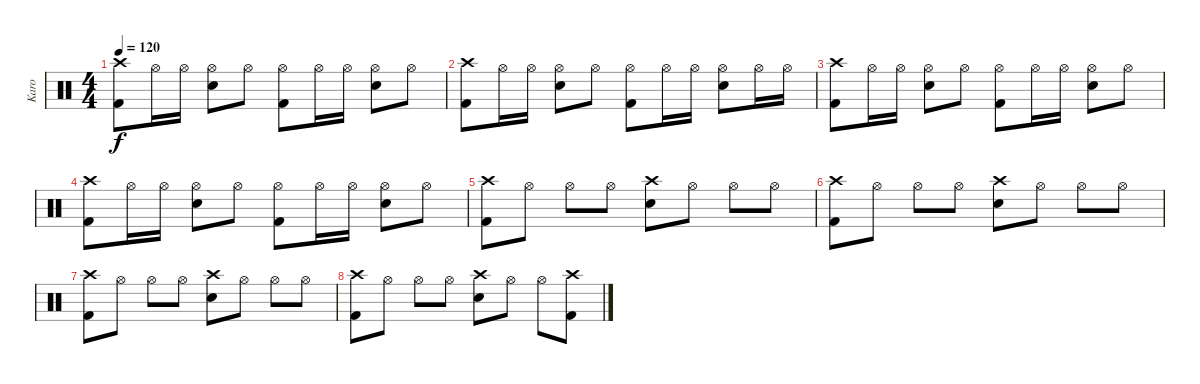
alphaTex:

\track ("Karo" "Karo") {instrument percussion}
\staff {score}
\articulation defaults
\ts (4 4)
\tempo 120
\clef neutral
\ks c
("Crash high (hit)" "Kick (hit) 2").8{dy f} "Hi-Hat (open)".16 "Hi-Hat (open)".16 ("Hi-Hat (open)" "Electric Snare (hit)").8 "Hi-Hat (open)".8 ("Hi-Hat (open)" "Kick (hit) 2").8 "Hi-Hat (open)".16 "Hi-Hat (open)".16 ("Hi-Hat (open)" "Electric Snare (hit)").8 "Hi-Hat (open)".8 |
("Crash high (hit)" "Kick (hit) 2").8 "Hi-Hat (open)".16 "Hi-Hat (open)".16 ("Hi-Hat (open)" "Electric Snare (hit)").8 "Hi-Hat (open)".8 ("Hi-Hat (open)" "Kick (hit) 2").8 "Hi-Hat (open)".16 "Hi-Hat (open)".16 ("Hi-Hat (open)" "Electric Snare (hit)").8 "Hi-Hat (open)".16 "Hi-Hat (open)".16 |
("Crash high (hit)" "Kick (hit) 2").8 "Hi-Hat (open)".16 "Hi-Hat (open)".16 ("Hi-Hat (open)" "Electric Snare (hit)").8 "Hi-Hat (open)".8 ("Hi-Hat (open)" "Kick (hit) 2").8 "Hi-Hat (open)".16 "Hi-Hat (open)".16 ("Hi-Hat (open)" "Electric Snare (hit)").8 "Hi-Hat (open)".8 |
("Crash high (hit)" "Kick (hit) 2").8 "Hi-Hat (open)".16 "Hi-Hat (open)".16 ("Hi-Hat (open)" "Electric Snare (hit)").8 "Hi-Hat (open)".8 ("Hi-Hat (open)" "Kick (hit) 2").8 "Hi-Hat (open)".16 "Hi-Hat (open)".16 ("Hi-Hat (open)" "Electric Snare (hit)").8 "Hi-Hat (open)".8 |
("Crash high (hit)" "Kick (hit) 2").8 "Hi-Hat (open)".8 "Hi-Hat (open)".8 "Hi-Hat (open)".8 ("Crash high (hit)" "Electric Snare (hit)").8 "Hi-Hat (open)".8 "Hi-Hat (open)".8 "Hi-Hat (open)".8 |
("Crash high (hit)" "Kick (hit) 2").8 "Hi-Hat (open)".8 "Hi-Hat (open)".8 "Hi-Hat (open)".8 ("Crash high (hit)" "Electric Snare (hit)").8 "Hi-Hat (open)".8 "Hi-Hat (open)".8 "Hi-Hat (open)".8 |
("Crash high (hit)" "Kick (hit) 2").8 "Hi-Hat (open)".8 "Hi-Hat (open)".8 "Hi-Hat (open)".8 ("Crash high (hit)" "Electric Snare (hit)").8 "Hi-Hat (open)".8 "Hi-Hat (open)".8 "Hi-Hat (open)".8 |
("Crash high (hit)" "Kick (hit) 2").8 "Hi-Hat (open)".8 "Hi-Hat (open)".8 "Hi-Hat (open)".8 ("Crash high (hit)" "Electric Snare (hit)").8 "Hi-Hat (open)".8 "Hi-Hat (open)".8 ("Crash high (hit)" "Kick (hit) 2").8
